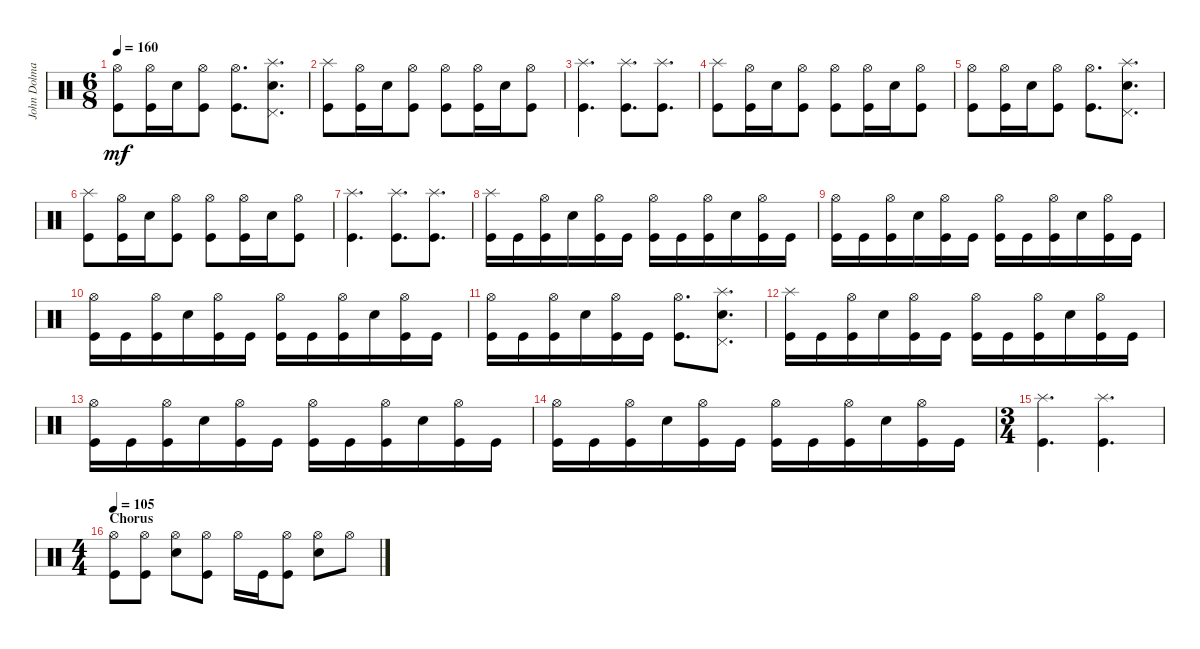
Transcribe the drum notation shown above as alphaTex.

\track ("John Dolmayan" "John Dolma") {instrument percussion}
\staff {score}
\articulation defaults
\ts (6 8)
\tempo 160
\clef neutral
\ks c
("Kick (hit)" "Hi-Hat (open)").8{dy mf} ("Kick (hit)" "Hi-Hat (open)").16 "Snare (hit) 2".16 ("Kick (hit)" "Hi-Hat (open)").8 ("Kick (hit)" "Hi-Hat (open)").8{d} ("Snare (hit) 2" "Splash (hit)" "Pedal Hi-Hat (hit)").8{d} |
("Kick (hit)" "Splash (hit)").8 ("Kick (hit)" "Hi-Hat (open)").16 "Snare (hit) 2".16 ("Kick (hit)" "Hi-Hat (open)").8 ("Kick (hit)" "Hi-Hat (open)").8 ("Kick (hit)" "Hi-Hat (open)").16 "Snare (hit) 2".16 ("Kick (hit)" "Hi-Hat (open)").8 |
("Kick (hit)" "Splash (hit)").4{d} ("Kick (hit)" "Splash (hit)").8{d} ("Kick (hit)" "Splash (hit)").8{d} |
("Kick (hit)" "Splash (hit)").8 ("Kick (hit)" "Hi-Hat (open)").16 "Snare (hit) 2".16 ("Kick (hit)" "Hi-Hat (open)").8 ("Kick (hit)" "Hi-Hat (open)").8 ("Kick (hit)" "Hi-Hat (open)").16 "Snare (hit) 2".16 ("Kick (hit)" "Hi-Hat (open)").8 |
("Kick (hit)" "Hi-Hat (open)").8 ("Kick (hit)" "Hi-Hat (open)").16 "Snare (hit) 2".16 ("Kick (hit)" "Hi-Hat (open)").8 ("Kick (hit)" "Hi-Hat (open)").8{d} ("Snare (hit) 2" "Splash (hit)" "Pedal Hi-Hat (hit)").8{d} |
("Kick (hit)" "Splash (hit)").8 ("Kick (hit)" "Hi-Hat (open)").16 "Snare (hit) 2".16 ("Kick (hit)" "Hi-Hat (open)").8 ("Kick (hit)" "Hi-Hat (open)").8 ("Kick (hit)" "Hi-Hat (open)").16 "Snare (hit) 2".16 ("Kick (hit)" "Hi-Hat (open)").8 |
("Kick (hit)" "Splash (hit)").4{d} ("Kick (hit)" "Splash (hit)").8{d} ("Kick (hit)" "Splash (hit)").8{d} |
("Kick (hit)" "Splash (hit)").16 "Kick (hit)".16 ("Kick (hit)" "Hi-Hat (open)").16 "Snare (hit) 2".16 ("Kick (hit)" "Hi-Hat (open)").16 "Kick (hit)".16 ("Kick (hit)" "Hi-Hat (open)").16 "Kick (hit)".16 ("Kick (hit)" "Hi-Hat (open)").16 "Snare (hit) 2".16 ("Kick (hit)" "Hi-Hat (open)").16 "Kick (hit)".16 |
("Kick (hit)" "Hi-Hat (open)").16 "Kick (hit)".16 ("Kick (hit)" "Hi-Hat (open)").16 "Snare (hit) 2".16 ("Kick (hit)" "Hi-Hat (open)").16 "Kick (hit)".16 ("Kick (hit)" "Hi-Hat (open)").16 "Kick (hit)".16 ("Kick (hit)" "Hi-Hat (open)").16 "Snare (hit) 2".16 ("Kick (hit)" "Hi-Hat (open)").16 "Kick (hit)".16 |
("Kick (hit)" "Hi-Hat (open)").16 "Kick (hit)".16 ("Kick (hit)" "Hi-Hat (open)").16 "Snare (hit) 2".16 ("Kick (hit)" "Hi-Hat (open)").16 "Kick (hit)".16 ("Kick (hit)" "Hi-Hat (open)").16 "Kick (hit)".16 ("Kick (hit)" "Hi-Hat (open)").16 "Snare (hit) 2".16 ("Kick (hit)" "Hi-Hat (open)").16 "Kick (hit)".16 |
("Kick (hit)" "Hi-Hat (open)").16 "Kick (hit)".16 ("Kick (hit)" "Hi-Hat (open)").16 "Snare (hit) 2".16 ("Kick (hit)" "Hi-Hat (open)").16 "Kick (hit)".16 ("Kick (hit)" "Hi-Hat (open)").8{d} ("Snare (hit) 2" "Splash (hit)" "Pedal Hi-Hat (hit)").8{d} |
("Kick (hit)" "Splash (hit)").16 "Kick (hit)".16 ("Kick (hit)" "Hi-Hat (open)").16 "Snare (hit) 2".16 ("Kick (hit)" "Hi-Hat (open)").16 "Kick (hit)".16 ("Kick (hit)" "Hi-Hat (open)").16 "Kick (hit)".16 ("Kick (hit)" "Hi-Hat (open)").16 "Snare (hit) 2".16 ("Kick (hit)" "Hi-Hat (open)").16 "Kick (hit)".16 |
("Kick (hit)" "Hi-Hat (open)").16 "Kick (hit)".16 ("Kick (hit)" "Hi-Hat (open)").16 "Snare (hit) 2".16 ("Kick (hit)" "Hi-Hat (open)").16 "Kick (hit)".16 ("Kick (hit)" "Hi-Hat (open)").16 "Kick (hit)".16 ("Kick (hit)" "Hi-Hat (open)").16 "Snare (hit) 2".16 ("Kick (hit)" "Hi-Hat (open)").16 "Kick (hit)".16 |
("Kick (hit)" "Hi-Hat (open)").16 "Kick (hit)".16 ("Kick (hit)" "Hi-Hat (open)").16 "Snare (hit) 2".16 ("Kick (hit)" "Hi-Hat (open)").16 "Kick (hit)".16 ("Kick (hit)" "Hi-Hat (open)").16 "Kick (hit)".16 ("Kick (hit)" "Hi-Hat (open)").16 "Snare (hit) 2".16 ("Kick (hit)" "Hi-Hat (open)").16 "Kick (hit)".16 |
\ts (3 4)
("Kick (hit)" "Splash (hit)").4{d} ("Splash (hit)" "Kick (hit)").4{d} |
\ts (4 4)
\section ("" "Chorus")
\tempo 105
("Kick (hit)" "Hi-Hat (open)").8 ("Kick (hit)" "Hi-Hat (open)").8 ("Snare (hit) 2" "Hi-Hat (open)").8 ("Kick (hit)" "Hi-Hat (open)").8 "Hi-Hat (open)".16 "Kick (hit)".16 ("Hi-Hat (open)" "Kick (hit)").8 ("Snare (hit) 2" "Hi-Hat (open)").8 "Hi-Hat (open)".8
